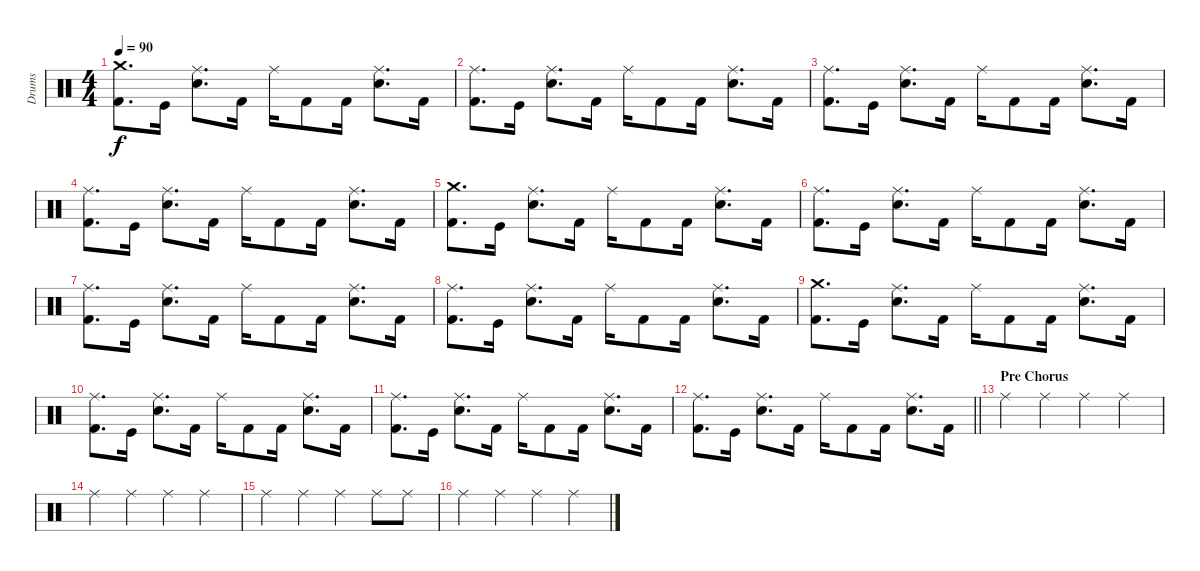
\track ("Drums" "Drums") {instrument percussion}
\staff {score}
\articulation defaults
\ts (4 4)
\tempo 90
\clef neutral
\ks c
("Crash medium (hit)" "Kick (hit) 2").8{d dy f} "Kick (hit)".16 ("Ride (middle)" "Snare (hit) 2").8{d} "Kick (hit) 2".16 "Ride (middle)".16 "Kick (hit) 2".8 "Kick (hit) 2".16 ("Ride (middle)" "Snare (hit) 2").8{d} "Kick (hit) 2".16 |
("Ride (middle)" "Kick (hit) 2").8{d} "Kick (hit)".16 ("Ride (middle)" "Snare (hit) 2").8{d} "Kick (hit) 2".16 "Ride (middle)".16 "Kick (hit) 2".8 "Kick (hit) 2".16 ("Ride (middle)" "Snare (hit) 2").8{d} "Kick (hit) 2".16 |
("Ride (middle)" "Kick (hit) 2").8{d} "Kick (hit)".16 ("Ride (middle)" "Snare (hit) 2").8{d} "Kick (hit) 2".16 "Ride (middle)".16 "Kick (hit) 2".8 "Kick (hit) 2".16 ("Ride (middle)" "Snare (hit) 2").8{d} "Kick (hit) 2".16 |
("Ride (middle)" "Kick (hit) 2").8{d} "Kick (hit)".16 ("Ride (middle)" "Snare (hit) 2").8{d} "Kick (hit) 2".16 "Ride (middle)".16 "Kick (hit) 2".8 "Kick (hit) 2".16 ("Ride (middle)" "Snare (hit) 2").8{d} "Kick (hit) 2".16 |
("Crash medium (hit)" "Kick (hit) 2").8{d} "Kick (hit)".16 ("Ride (middle)" "Snare (hit) 2").8{d} "Kick (hit) 2".16 "Ride (middle)".16 "Kick (hit) 2".8 "Kick (hit) 2".16 ("Ride (middle)" "Snare (hit) 2").8{d} "Kick (hit) 2".16 |
("Ride (middle)" "Kick (hit) 2").8{d} "Kick (hit)".16 ("Ride (middle)" "Snare (hit) 2").8{d} "Kick (hit) 2".16 "Ride (middle)".16 "Kick (hit) 2".8 "Kick (hit) 2".16 ("Ride (middle)" "Snare (hit) 2").8{d} "Kick (hit) 2".16 |
("Ride (middle)" "Kick (hit) 2").8{d} "Kick (hit)".16 ("Ride (middle)" "Snare (hit) 2").8{d} "Kick (hit) 2".16 "Ride (middle)".16 "Kick (hit) 2".8 "Kick (hit) 2".16 ("Ride (middle)" "Snare (hit) 2").8{d} "Kick (hit) 2".16 |
("Ride (middle)" "Kick (hit) 2").8{d} "Kick (hit)".16 ("Ride (middle)" "Snare (hit) 2").8{d} "Kick (hit) 2".16 "Ride (middle)".16 "Kick (hit) 2".8 "Kick (hit) 2".16 ("Ride (middle)" "Snare (hit) 2").8{d} "Kick (hit) 2".16 |
("Crash medium (hit)" "Kick (hit) 2").8{d} "Kick (hit)".16 ("Ride (middle)" "Snare (hit) 2").8{d} "Kick (hit) 2".16 "Ride (middle)".16 "Kick (hit) 2".8 "Kick (hit) 2".16 ("Ride (middle)" "Snare (hit) 2").8{d} "Kick (hit) 2".16 |
("Ride (middle)" "Kick (hit) 2").8{d} "Kick (hit)".16 ("Ride (middle)" "Snare (hit) 2").8{d} "Kick (hit) 2".16 "Ride (middle)".16 "Kick (hit) 2".8 "Kick (hit) 2".16 ("Ride (middle)" "Snare (hit) 2").8{d} "Kick (hit) 2".16 |
("Ride (middle)" "Kick (hit) 2").8{d} "Kick (hit)".16 ("Ride (middle)" "Snare (hit) 2").8{d} "Kick (hit) 2".16 "Ride (middle)".16 "Kick (hit) 2".8 "Kick (hit) 2".16 ("Ride (middle)" "Snare (hit) 2").8{d} "Kick (hit) 2".16 |
\barLineRight lightlight
("Ride (middle)" "Kick (hit) 2").8{d} "Kick (hit)".16 ("Ride (middle)" "Snare (hit) 2").8{d} "Kick (hit) 2".16 "Ride (middle)".16 "Kick (hit) 2".8 "Kick (hit) 2".16 ("Ride (middle)" "Snare (hit) 2").8{d} "Kick (hit) 2".16 |
\section ("" "Pre Chorus")
"Ride (middle)".4 "Ride (middle)".4 "Ride (middle)".4 "Ride (middle)".4 |
"Ride (middle)".4 "Ride (middle)".4 "Ride (middle)".4 "Ride (middle)".4 |
"Ride (middle)".4 "Ride (middle)".4 "Ride (middle)".4 "Ride (middle)".8 "Ride (middle)".8 |
"Ride (middle)".4 "Ride (middle)".4 "Ride (middle)".4 "Ride (middle)".4
